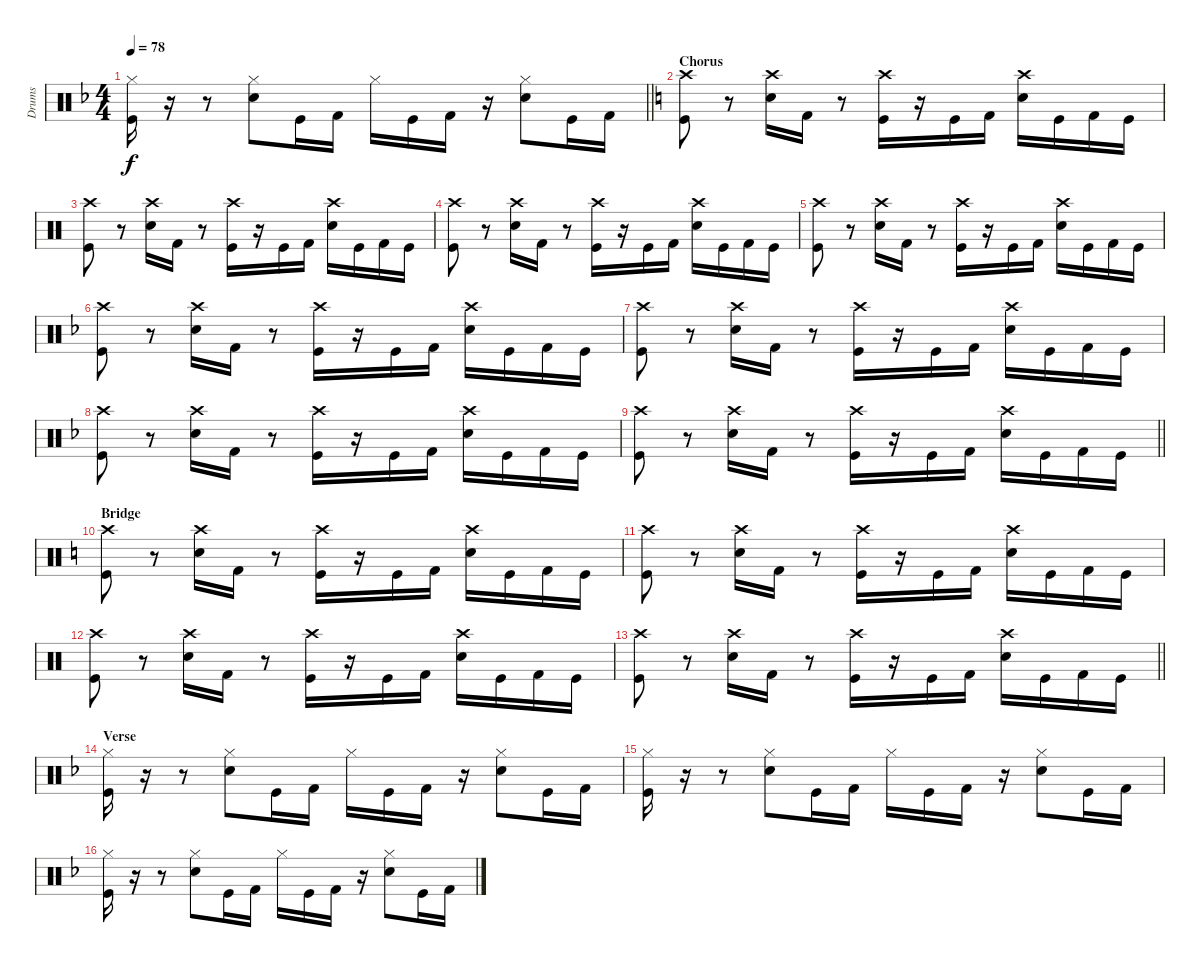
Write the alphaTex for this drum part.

\track ("Drums" "Drums") {instrument percussion}
\staff {score}
\articulation defaults
\ts (4 4)
\tempo 78
\clef neutral
\barLineRight lightlight
\ks f
("Hi-Hat (closed)" "Kick (hit)").16{dy f} r.16 r.8 ("Hi-Hat (closed)" "Snare (hit) 2").8 "Kick (hit)".16 "Kick (hit) 2".16 "Hi-Hat (closed)".16 "Kick (hit)".16 "Kick (hit) 2".16 r.16 ("Hi-Hat (closed)" "Snare (hit) 2").8 "Kick (hit)".16 "Kick (hit) 2".16 |
\section ("" "Chorus")
\ks c
("Crash high (hit)" "Kick (hit)").8 r.8 ("Crash high (hit)" "Snare (hit) 2").16 "Kick (hit) 2".16 r.8 ("Crash high (hit)" "Kick (hit)").16 r.16 "Kick (hit)".16 "Kick (hit) 2".16 ("Crash high (hit)" "Snare (hit) 2").16 "Kick (hit)".16 "Kick (hit) 2".16 "Kick (hit)".16 |
("Crash high (hit)" "Kick (hit)").8 r.8 ("Crash high (hit)" "Snare (hit) 2").16 "Kick (hit) 2".16 r.8 ("Crash high (hit)" "Kick (hit)").16 r.16 "Kick (hit)".16 "Kick (hit) 2".16 ("Crash high (hit)" "Snare (hit) 2").16 "Kick (hit)".16 "Kick (hit) 2".16 "Kick (hit)".16 |
("Crash high (hit)" "Kick (hit)").8 r.8 ("Crash high (hit)" "Snare (hit) 2").16 "Kick (hit) 2".16 r.8 ("Crash high (hit)" "Kick (hit)").16 r.16 "Kick (hit)".16 "Kick (hit) 2".16 ("Crash high (hit)" "Snare (hit) 2").16 "Kick (hit)".16 "Kick (hit) 2".16 "Kick (hit)".16 |
("Crash high (hit)" "Kick (hit)").8 r.8 ("Crash high (hit)" "Snare (hit) 2").16 "Kick (hit) 2".16 r.8 ("Crash high (hit)" "Kick (hit)").16 r.16 "Kick (hit)".16 "Kick (hit) 2".16 ("Crash high (hit)" "Snare (hit) 2").16 "Kick (hit)".16 "Kick (hit) 2".16 "Kick (hit)".16 |
\ks f
("Crash high (hit)" "Kick (hit)").8 r.8 ("Crash high (hit)" "Snare (hit) 2").16 "Kick (hit) 2".16 r.8 ("Crash high (hit)" "Kick (hit)").16 r.16 "Kick (hit)".16 "Kick (hit) 2".16 ("Crash high (hit)" "Snare (hit) 2").16 "Kick (hit)".16 "Kick (hit) 2".16 "Kick (hit)".16 |
("Crash high (hit)" "Kick (hit)").8 r.8 ("Crash high (hit)" "Snare (hit) 2").16 "Kick (hit) 2".16 r.8 ("Crash high (hit)" "Kick (hit)").16 r.16 "Kick (hit)".16 "Kick (hit) 2".16 ("Crash high (hit)" "Snare (hit) 2").16 "Kick (hit)".16 "Kick (hit) 2".16 "Kick (hit)".16 |
("Crash high (hit)" "Kick (hit)").8 r.8 ("Crash high (hit)" "Snare (hit) 2").16 "Kick (hit) 2".16 r.8 ("Crash high (hit)" "Kick (hit)").16 r.16 "Kick (hit)".16 "Kick (hit) 2".16 ("Crash high (hit)" "Snare (hit) 2").16 "Kick (hit)".16 "Kick (hit) 2".16 "Kick (hit)".16 |
\barLineRight lightlight
("Crash high (hit)" "Kick (hit)").8 r.8 ("Crash high (hit)" "Snare (hit) 2").16 "Kick (hit) 2".16 r.8 ("Crash high (hit)" "Kick (hit)").16 r.16 "Kick (hit)".16 "Kick (hit) 2".16 ("Crash high (hit)" "Snare (hit) 2").16 "Kick (hit)".16 "Kick (hit) 2".16 "Kick (hit)".16 |
\section ("" "Bridge")
\ks c
("Crash high (hit)" "Kick (hit)").8 r.8 ("Crash high (hit)" "Snare (hit) 2").16 "Kick (hit) 2".16 r.8 ("Crash high (hit)" "Kick (hit)").16 r.16 "Kick (hit)".16 "Kick (hit) 2".16 ("Crash high (hit)" "Snare (hit) 2").16 "Kick (hit)".16 "Kick (hit) 2".16 "Kick (hit)".16 |
("Crash high (hit)" "Kick (hit)").8 r.8 ("Crash high (hit)" "Snare (hit) 2").16 "Kick (hit) 2".16 r.8 ("Crash high (hit)" "Kick (hit)").16 r.16 "Kick (hit)".16 "Kick (hit) 2".16 ("Crash high (hit)" "Snare (hit) 2").16 "Kick (hit)".16 "Kick (hit) 2".16 "Kick (hit)".16 |
("Crash high (hit)" "Kick (hit)").8 r.8 ("Crash high (hit)" "Snare (hit) 2").16 "Kick (hit) 2".16 r.8 ("Crash high (hit)" "Kick (hit)").16 r.16 "Kick (hit)".16 "Kick (hit) 2".16 ("Crash high (hit)" "Snare (hit) 2").16 "Kick (hit)".16 "Kick (hit) 2".16 "Kick (hit)".16 |
\barLineRight lightlight
("Crash high (hit)" "Kick (hit)").8 r.8 ("Crash high (hit)" "Snare (hit) 2").16 "Kick (hit) 2".16 r.8 ("Crash high (hit)" "Kick (hit)").16 r.16 "Kick (hit)".16 "Kick (hit) 2".16 ("Crash high (hit)" "Snare (hit) 2").16 "Kick (hit)".16 "Kick (hit) 2".16 "Kick (hit)".16 |
\section ("" "Verse")
\ks f
("Hi-Hat (closed)" "Kick (hit)").16 r.16 r.8 ("Hi-Hat (closed)" "Snare (hit) 2").8 "Kick (hit)".16 "Kick (hit) 2".16 "Hi-Hat (closed)".16 "Kick (hit)".16 "Kick (hit) 2".16 r.16 ("Hi-Hat (closed)" "Snare (hit) 2").8 "Kick (hit)".16 "Kick (hit) 2".16 |
("Hi-Hat (closed)" "Kick (hit)").16 r.16 r.8 ("Hi-Hat (closed)" "Snare (hit) 2").8 "Kick (hit)".16 "Kick (hit) 2".16 "Hi-Hat (closed)".16 "Kick (hit)".16 "Kick (hit) 2".16 r.16 ("Hi-Hat (closed)" "Snare (hit) 2").8 "Kick (hit)".16 "Kick (hit) 2".16 |
("Hi-Hat (closed)" "Kick (hit)").16 r.16 r.8 ("Hi-Hat (closed)" "Snare (hit) 2").8 "Kick (hit)".16 "Kick (hit) 2".16 "Hi-Hat (closed)".16 "Kick (hit)".16 "Kick (hit) 2".16 r.16 ("Hi-Hat (closed)" "Snare (hit) 2").8 "Kick (hit)".16 "Kick (hit) 2".16
